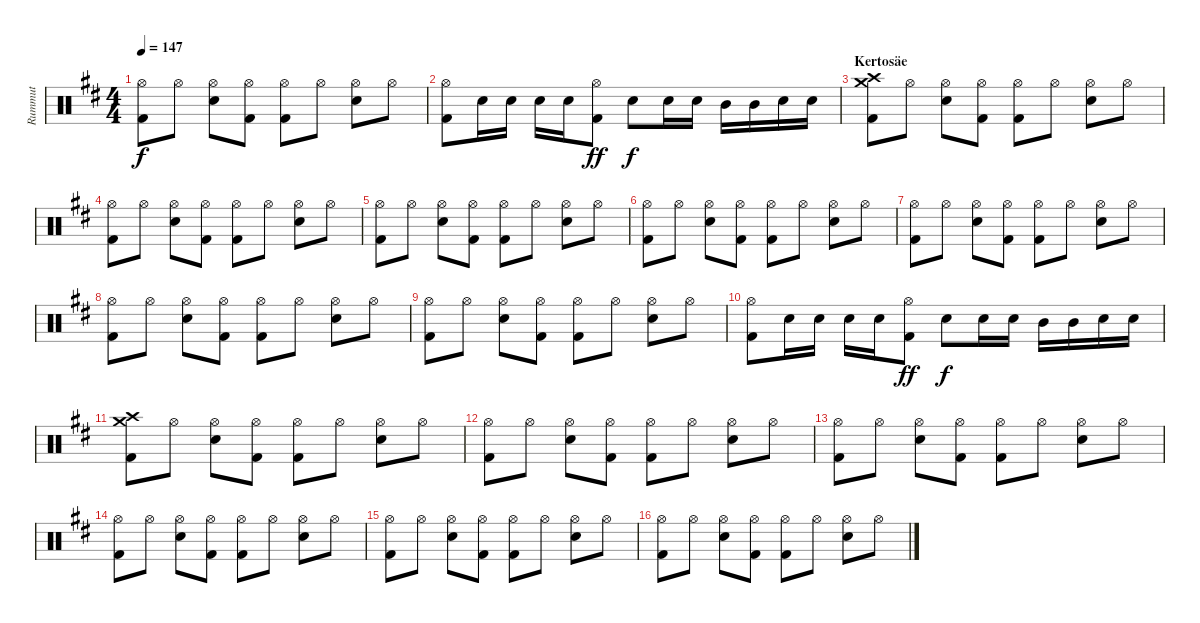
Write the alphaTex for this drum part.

\track ("Rummut" "Rummut") {instrument percussion}
\staff {score}
\articulation defaults
\ts (4 4)
\tempo 147
\clef neutral
\ks d
("Hi-Hat (open)" "Kick (hit) 2").8{dy f} "Hi-Hat (open)".8 ("Hi-Hat (open)" "Electric Snare (hit)").8 ("Hi-Hat (open)" "Kick (hit) 2").8 ("Hi-Hat (open)" "Kick (hit) 2").8 "Hi-Hat (open)".8 ("Hi-Hat (open)" "Electric Snare (hit)").8 "Hi-Hat (open)".8 |
("Hi-Hat (open)" "Kick (hit) 2").8 "Electric Snare (hit)".16 "Electric Snare (hit)".16 "Electric Snare (hit)".16 "Electric Snare (hit)".16 ("Hi-Hat (open)" "Kick (hit) 2").8{dy ff} "Electric Snare (hit)".8{dy f} "Electric Snare (hit)".16 "Electric Snare (hit)".16 "Mid Tom (hit)".16 "Mid Tom (hit)".16 "Electric Snare (hit)".16 "Electric Snare (hit)".16 |
\section ("" "Kertosäe")
("Crash high (hit)" "Crash medium (hit)" "Kick (hit) 2").8 "Hi-Hat (open)".8 ("Hi-Hat (open)" "Electric Snare (hit)").8 ("Hi-Hat (open)" "Kick (hit) 2").8 ("Hi-Hat (open)" "Kick (hit) 2").8 "Hi-Hat (open)".8 ("Hi-Hat (open)" "Electric Snare (hit)").8 "Hi-Hat (open)".8 |
("Hi-Hat (open)" "Kick (hit) 2").8 "Hi-Hat (open)".8 ("Hi-Hat (open)" "Electric Snare (hit)").8 ("Hi-Hat (open)" "Kick (hit) 2").8 ("Hi-Hat (open)" "Kick (hit) 2").8 "Hi-Hat (open)".8 ("Hi-Hat (open)" "Electric Snare (hit)").8 "Hi-Hat (open)".8 |
("Hi-Hat (open)" "Kick (hit) 2").8 "Hi-Hat (open)".8 ("Hi-Hat (open)" "Electric Snare (hit)").8 ("Hi-Hat (open)" "Kick (hit) 2").8 ("Hi-Hat (open)" "Kick (hit) 2").8 "Hi-Hat (open)".8 ("Hi-Hat (open)" "Electric Snare (hit)").8 "Hi-Hat (open)".8 |
("Hi-Hat (open)" "Kick (hit) 2").8 "Hi-Hat (open)".8 ("Hi-Hat (open)" "Electric Snare (hit)").8 ("Hi-Hat (open)" "Kick (hit) 2").8 ("Hi-Hat (open)" "Kick (hit) 2").8 "Hi-Hat (open)".8 ("Hi-Hat (open)" "Electric Snare (hit)").8 "Hi-Hat (open)".8 |
("Hi-Hat (open)" "Kick (hit) 2").8 "Hi-Hat (open)".8 ("Hi-Hat (open)" "Electric Snare (hit)").8 ("Hi-Hat (open)" "Kick (hit) 2").8 ("Hi-Hat (open)" "Kick (hit) 2").8 "Hi-Hat (open)".8 ("Hi-Hat (open)" "Electric Snare (hit)").8 "Hi-Hat (open)".8 |
("Hi-Hat (open)" "Kick (hit) 2").8 "Hi-Hat (open)".8 ("Hi-Hat (open)" "Electric Snare (hit)").8 ("Hi-Hat (open)" "Kick (hit) 2").8 ("Hi-Hat (open)" "Kick (hit) 2").8 "Hi-Hat (open)".8 ("Hi-Hat (open)" "Electric Snare (hit)").8 "Hi-Hat (open)".8 |
("Hi-Hat (open)" "Kick (hit) 2").8 "Hi-Hat (open)".8 ("Hi-Hat (open)" "Electric Snare (hit)").8 ("Hi-Hat (open)" "Kick (hit) 2").8 ("Hi-Hat (open)" "Kick (hit) 2").8 "Hi-Hat (open)".8 ("Hi-Hat (open)" "Electric Snare (hit)").8 "Hi-Hat (open)".8 |
("Hi-Hat (open)" "Kick (hit) 2").8 "Electric Snare (hit)".16 "Electric Snare (hit)".16 "Electric Snare (hit)".16 "Electric Snare (hit)".16 ("Hi-Hat (open)" "Kick (hit) 2").8{dy ff} "Electric Snare (hit)".8{dy f} "Electric Snare (hit)".16 "Electric Snare (hit)".16 "Mid Tom (hit)".16 "Mid Tom (hit)".16 "Electric Snare (hit)".16 "Electric Snare (hit)".16 |
("Crash high (hit)" "Crash medium (hit)" "Kick (hit) 2").8 "Hi-Hat (open)".8 ("Hi-Hat (open)" "Electric Snare (hit)").8 ("Hi-Hat (open)" "Kick (hit) 2").8 ("Hi-Hat (open)" "Kick (hit) 2").8 "Hi-Hat (open)".8 ("Hi-Hat (open)" "Electric Snare (hit)").8 "Hi-Hat (open)".8 |
("Hi-Hat (open)" "Kick (hit) 2").8 "Hi-Hat (open)".8 ("Hi-Hat (open)" "Electric Snare (hit)").8 ("Hi-Hat (open)" "Kick (hit) 2").8 ("Hi-Hat (open)" "Kick (hit) 2").8 "Hi-Hat (open)".8 ("Hi-Hat (open)" "Electric Snare (hit)").8 "Hi-Hat (open)".8 |
("Hi-Hat (open)" "Kick (hit) 2").8 "Hi-Hat (open)".8 ("Hi-Hat (open)" "Electric Snare (hit)").8 ("Hi-Hat (open)" "Kick (hit) 2").8 ("Hi-Hat (open)" "Kick (hit) 2").8 "Hi-Hat (open)".8 ("Hi-Hat (open)" "Electric Snare (hit)").8 "Hi-Hat (open)".8 |
("Hi-Hat (open)" "Kick (hit) 2").8 "Hi-Hat (open)".8 ("Hi-Hat (open)" "Electric Snare (hit)").8 ("Hi-Hat (open)" "Kick (hit) 2").8 ("Hi-Hat (open)" "Kick (hit) 2").8 "Hi-Hat (open)".8 ("Hi-Hat (open)" "Electric Snare (hit)").8 "Hi-Hat (open)".8 |
("Hi-Hat (open)" "Kick (hit) 2").8 "Hi-Hat (open)".8 ("Hi-Hat (open)" "Electric Snare (hit)").8 ("Hi-Hat (open)" "Kick (hit) 2").8 ("Hi-Hat (open)" "Kick (hit) 2").8 "Hi-Hat (open)".8 ("Hi-Hat (open)" "Electric Snare (hit)").8 "Hi-Hat (open)".8 |
("Hi-Hat (open)" "Kick (hit) 2").8 "Hi-Hat (open)".8 ("Hi-Hat (open)" "Electric Snare (hit)").8 ("Hi-Hat (open)" "Kick (hit) 2").8 ("Hi-Hat (open)" "Kick (hit) 2").8 "Hi-Hat (open)".8 ("Hi-Hat (open)" "Electric Snare (hit)").8 "Hi-Hat (open)".8
